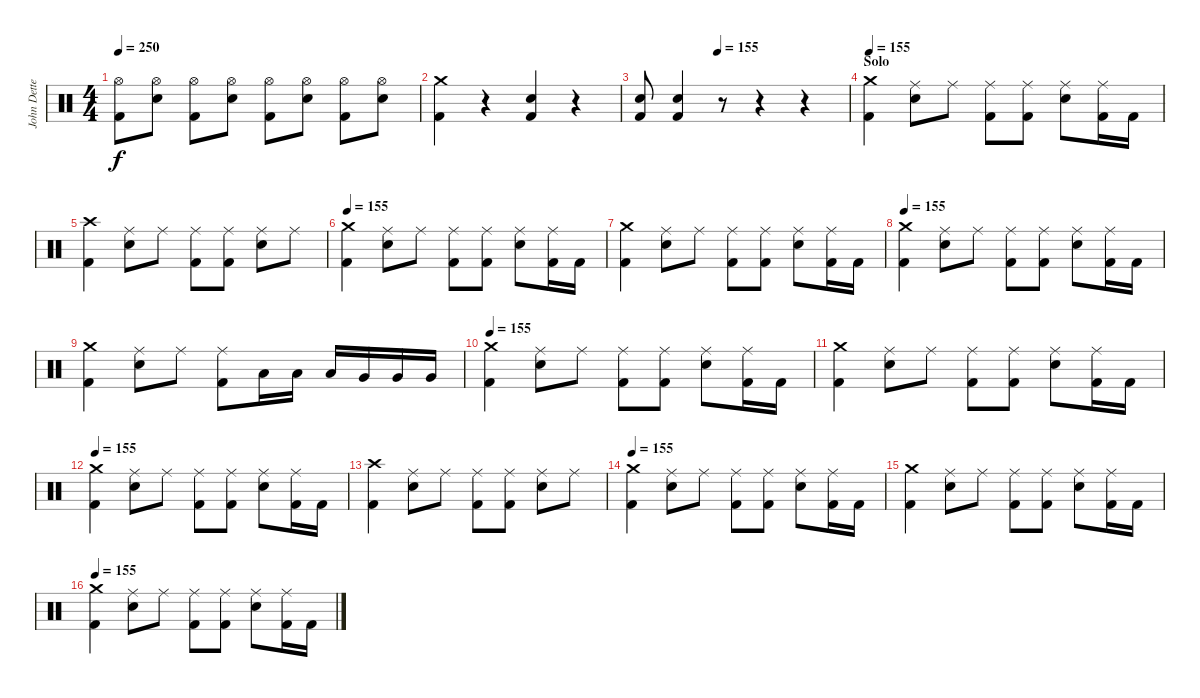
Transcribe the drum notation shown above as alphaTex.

\track ("John Dette" "John Dette") {instrument percussion}
\staff {score}
\articulation defaults
\ts (4 4)
\tempo 250
\clef neutral
\ks c
("Hi-Hat (open)" "Kick (hit) 2").8{dy f} ("Hi-Hat (open)" "Snare (hit) 2").8 ("Hi-Hat (open)" "Kick (hit) 2").8 ("Hi-Hat (open)" "Snare (hit) 2").8 ("Hi-Hat (open)" "Kick (hit) 2").8 ("Hi-Hat (open)" "Snare (hit) 2").8 ("Hi-Hat (open)" "Kick (hit) 2").8 ("Hi-Hat (open)" "Snare (hit) 2").8 |
("Crash medium (hit)" "Kick (hit) 2").4 r.4 ("Snare (hit) 2" "Kick (hit) 2").4 r.4 |
\tempo (155 0.375)
("Snare (hit) 2" "Kick (hit) 2").8 ("Snare (hit) 2" "Kick (hit) 2").4 r.8 r.4 r.4 |
\section ("" "Solo")
\tempo 155
("Crash medium (hit)" "Kick (hit) 2").4 ("Ride (middle)" "Snare (hit) 2").8 "Ride (middle)".8 ("Ride (middle)" "Kick (hit) 2").8 ("Ride (middle)" "Kick (hit) 2").8 ("Ride (middle)" "Snare (hit) 2").8 ("Ride (middle)" "Kick (hit) 2").16 "Kick (hit) 2".16 |
("Crash high (hit)" "Kick (hit) 2").4 ("Ride (middle)" "Snare (hit) 2").8 "Ride (middle)".8 ("Ride (middle)" "Kick (hit) 2").8 ("Ride (middle)" "Kick (hit) 2").8 ("Ride (middle)" "Snare (hit) 2").8 "Ride (middle)".8 |
\tempo 155
("Crash medium (hit)" "Kick (hit) 2").4 ("Ride (middle)" "Snare (hit) 2").8 "Ride (middle)".8 ("Ride (middle)" "Kick (hit) 2").8 ("Ride (middle)" "Kick (hit) 2").8 ("Ride (middle)" "Snare (hit) 2").8 ("Ride (middle)" "Kick (hit) 2").16 "Kick (hit) 2".16 |
("Crash medium (hit)" "Kick (hit) 2").4 ("Ride (middle)" "Snare (hit) 2").8 "Ride (middle)".8 ("Ride (middle)" "Kick (hit) 2").8 ("Ride (middle)" "Kick (hit) 2").8 ("Ride (middle)" "Snare (hit) 2").8 ("Ride (middle)" "Kick (hit) 2").16 "Kick (hit) 2".16 |
\tempo 155
("Crash medium (hit)" "Kick (hit) 2").4 ("Ride (middle)" "Snare (hit) 2").8 "Ride (middle)".8 ("Ride (middle)" "Kick (hit) 2").8 ("Ride (middle)" "Kick (hit) 2").8 ("Ride (middle)" "Snare (hit) 2").8 ("Ride (middle)" "Kick (hit) 2").16 "Kick (hit) 2".16 |
("Crash medium (hit)" "Kick (hit) 2").4 ("Ride (middle)" "Snare (hit) 2").8 "Ride (middle)".8 ("Ride (middle)" "Kick (hit) 2").8 "Low Tom (hit)".16 "Low Tom (hit)".16 "Low Tom (hit)".16 "Very Low Tom (hit)".16 "Very Low Tom (hit)".16 "Very Low Tom (hit)".16 |
\tempo 155
("Crash medium (hit)" "Kick (hit) 2").4 ("Ride (middle)" "Snare (hit) 2").8 "Ride (middle)".8 ("Ride (middle)" "Kick (hit) 2").8 ("Ride (middle)" "Kick (hit) 2").8 ("Ride (middle)" "Snare (hit) 2").8 ("Ride (middle)" "Kick (hit) 2").16 "Kick (hit) 2".16 |
("Crash medium (hit)" "Kick (hit) 2").4 ("Ride (middle)" "Snare (hit) 2").8 "Ride (middle)".8 ("Ride (middle)" "Kick (hit) 2").8 ("Ride (middle)" "Kick (hit) 2").8 ("Ride (middle)" "Snare (hit) 2").8 ("Ride (middle)" "Kick (hit) 2").16 "Kick (hit) 2".16 |
\tempo 155
("Crash medium (hit)" "Kick (hit) 2").4 ("Ride (middle)" "Snare (hit) 2").8 "Ride (middle)".8 ("Ride (middle)" "Kick (hit) 2").8 ("Ride (middle)" "Kick (hit) 2").8 ("Ride (middle)" "Snare (hit) 2").8 ("Ride (middle)" "Kick (hit) 2").16 "Kick (hit) 2".16 |
("Crash high (hit)" "Kick (hit) 2").4 ("Ride (middle)" "Snare (hit) 2").8 "Ride (middle)".8 ("Ride (middle)" "Kick (hit) 2").8 ("Ride (middle)" "Kick (hit) 2").8 ("Ride (middle)" "Snare (hit) 2").8 "Ride (middle)".8 |
\tempo 155
("Crash medium (hit)" "Kick (hit) 2").4 ("Ride (middle)" "Snare (hit) 2").8 "Ride (middle)".8 ("Ride (middle)" "Kick (hit) 2").8 ("Ride (middle)" "Kick (hit) 2").8 ("Ride (middle)" "Snare (hit) 2").8 ("Ride (middle)" "Kick (hit) 2").16 "Kick (hit) 2".16 |
("Crash medium (hit)" "Kick (hit) 2").4 ("Ride (middle)" "Snare (hit) 2").8 "Ride (middle)".8 ("Ride (middle)" "Kick (hit) 2").8 ("Ride (middle)" "Kick (hit) 2").8 ("Ride (middle)" "Snare (hit) 2").8 ("Ride (middle)" "Kick (hit) 2").16 "Kick (hit) 2".16 |
\tempo 155
("Crash medium (hit)" "Kick (hit) 2").4 ("Ride (middle)" "Snare (hit) 2").8 "Ride (middle)".8 ("Ride (middle)" "Kick (hit) 2").8 ("Ride (middle)" "Kick (hit) 2").8 ("Ride (middle)" "Snare (hit) 2").8 ("Ride (middle)" "Kick (hit) 2").16 "Kick (hit) 2".16
